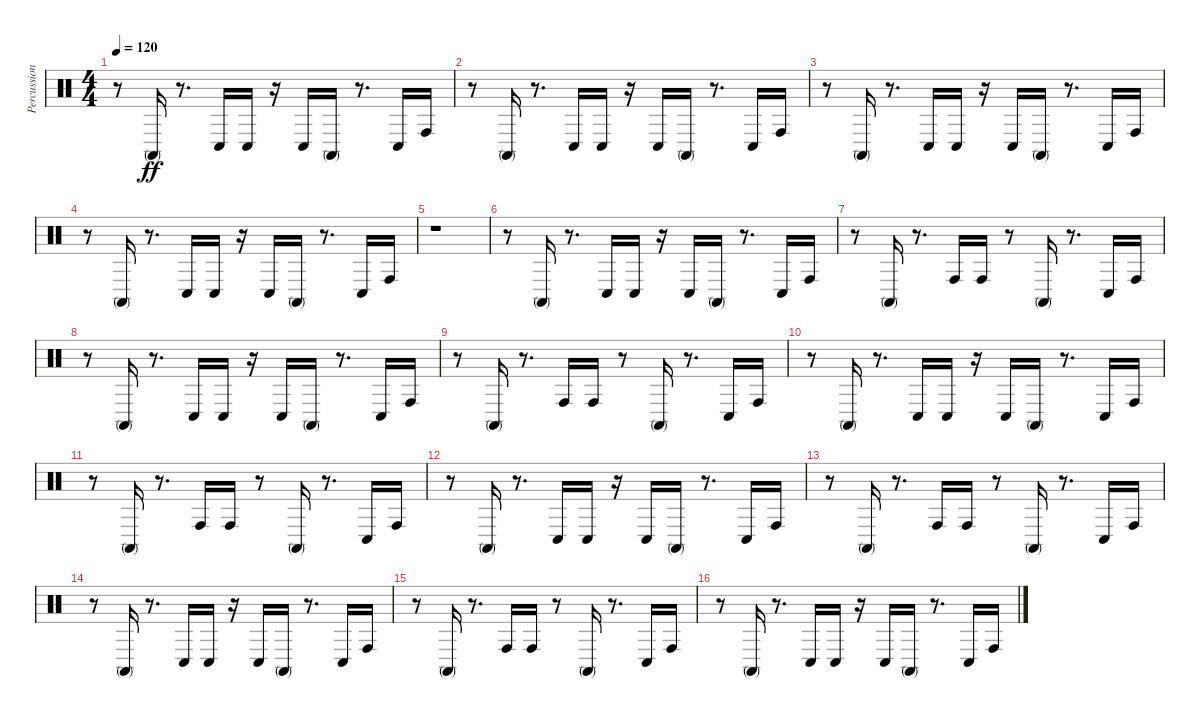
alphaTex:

\track ("Percussion" "Percussion") {instrument percussion}
\staff {score}
\articulation defaults
\ts (4 4)
\tempo 120
\clef neutral
\ks c
r.8{dy ff} "Conga high (mute)".16 r.8{d} "Conga low (hit)".16 "Conga low (hit)".16 r.16 "Conga low (hit)".16 "Conga high (mute)".16 r.8{d} "Conga low (hit)".16 "Conga high (hit)".16 |
r.8 "Conga high (mute)".16 r.8{d} "Conga low (hit)".16 "Conga low (hit)".16 r.16 "Conga low (hit)".16 "Conga high (mute)".16 r.8{d} "Conga low (hit)".16 "Conga high (hit)".16 |
r.8 "Conga high (mute)".16 r.8{d} "Conga low (hit)".16 "Conga low (hit)".16 r.16 "Conga low (hit)".16 "Conga high (mute)".16 r.8{d} "Conga low (hit)".16 "Conga high (hit)".16 |
r.8 "Conga high (mute)".16 r.8{d} "Conga low (hit)".16 "Conga low (hit)".16 r.16 "Conga low (hit)".16 "Conga high (mute)".16 r.8{d} "Conga low (hit)".16 "Conga high (hit)".16 |
r.1 |
r.8 "Conga high (mute)".16 r.8{d} "Conga low (hit)".16 "Conga low (hit)".16 r.16 "Conga low (hit)".16 "Conga high (mute)".16 r.8{d} "Conga low (hit)".16 "Conga high (hit)".16 |
r.8 "Conga high (mute)".16 r.8{d} "Conga high (hit)".16 "Conga high (hit)".16 r.8 "Conga high (mute)".16 r.8{d} "Conga low (hit)".16 "Conga high (hit)".16 |
r.8 "Conga high (mute)".16 r.8{d} "Conga low (hit)".16 "Conga low (hit)".16 r.16 "Conga low (hit)".16 "Conga high (mute)".16 r.8{d} "Conga low (hit)".16 "Conga high (hit)".16 |
r.8 "Conga high (mute)".16 r.8{d} "Conga high (hit)".16 "Conga high (hit)".16 r.8 "Conga high (mute)".16 r.8{d} "Conga low (hit)".16 "Conga high (hit)".16 |
r.8 "Conga high (mute)".16 r.8{d} "Conga low (hit)".16 "Conga low (hit)".16 r.16 "Conga low (hit)".16 "Conga high (mute)".16 r.8{d} "Conga low (hit)".16 "Conga high (hit)".16 |
r.8 "Conga high (mute)".16 r.8{d} "Conga high (hit)".16 "Conga high (hit)".16 r.8 "Conga high (mute)".16 r.8{d} "Conga low (hit)".16 "Conga high (hit)".16 |
r.8 "Conga high (mute)".16 r.8{d} "Conga low (hit)".16 "Conga low (hit)".16 r.16 "Conga low (hit)".16 "Conga high (mute)".16 r.8{d} "Conga low (hit)".16 "Conga high (hit)".16 |
r.8 "Conga high (mute)".16 r.8{d} "Conga high (hit)".16 "Conga high (hit)".16 r.8 "Conga high (mute)".16 r.8{d} "Conga low (hit)".16 "Conga high (hit)".16 |
r.8 "Conga high (mute)".16 r.8{d} "Conga low (hit)".16 "Conga low (hit)".16 r.16 "Conga low (hit)".16 "Conga high (mute)".16 r.8{d} "Conga low (hit)".16 "Conga high (hit)".16 |
r.8 "Conga high (mute)".16 r.8{d} "Conga high (hit)".16 "Conga high (hit)".16 r.8 "Conga high (mute)".16 r.8{d} "Conga low (hit)".16 "Conga high (hit)".16 |
r.8 "Conga high (mute)".16 r.8{d} "Conga low (hit)".16 "Conga low (hit)".16 r.16 "Conga low (hit)".16 "Conga high (mute)".16 r.8{d} "Conga low (hit)".16 "Conga high (hit)".16
